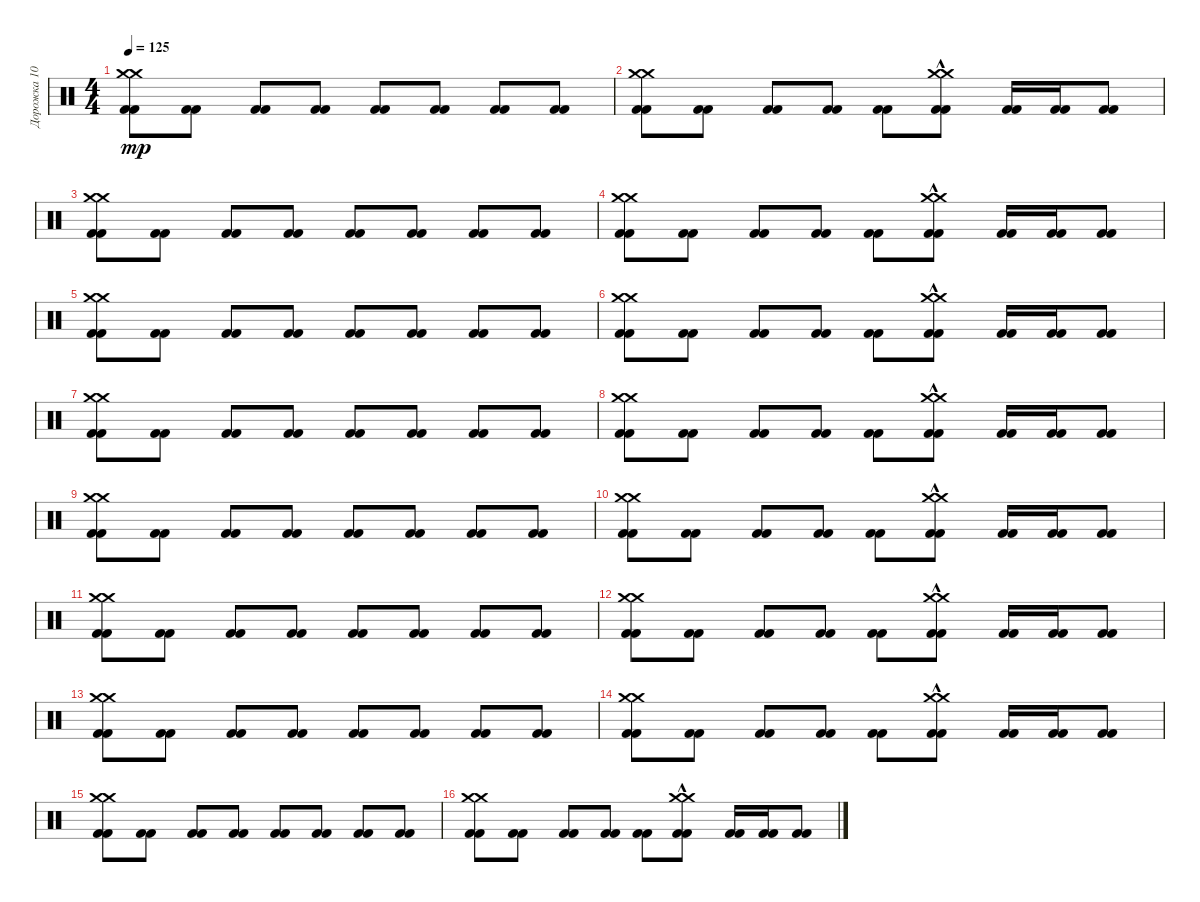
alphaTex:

\track ("Дорожка 10" "Дорожка 10") {instrument percussion}
\staff {score}
\articulation defaults
\ts (4 4)
\tempo 125
\clef neutral
\ks c
("Kick (hit) 2" "Crash medium (hit)" "Kick (hit) 2" "Crash medium (hit)").8{dy mp} ("Kick (hit) 2" "Kick (hit) 2").8 ("Kick (hit) 2" "Kick (hit) 2").8 ("Kick (hit) 2" "Kick (hit) 2").8 ("Kick (hit) 2" "Kick (hit) 2").8 ("Kick (hit) 2" "Kick (hit) 2").8 ("Kick (hit) 2" "Kick (hit) 2").8 ("Kick (hit) 2" "Kick (hit) 2").8 |
("Kick (hit) 2" "Crash medium (hit)" "Kick (hit) 2" "Crash medium (hit)").8 ("Kick (hit) 2" "Kick (hit) 2").8 ("Kick (hit) 2" "Kick (hit) 2").8 ("Kick (hit) 2" "Kick (hit) 2").8 ("Kick (hit) 2" "Kick (hit) 2").8 ("Kick (hit) 2" "Crash medium (hit)"{hac} "Kick (hit) 2" "Crash medium (hit)"{hac}).8 ("Kick (hit) 2" "Kick (hit) 2").16 ("Kick (hit) 2" "Kick (hit) 2").16 ("Kick (hit) 2" "Kick (hit) 2").8 |
("Kick (hit) 2" "Crash medium (hit)" "Kick (hit) 2" "Crash medium (hit)").8 ("Kick (hit) 2" "Kick (hit) 2").8 ("Kick (hit) 2" "Kick (hit) 2").8 ("Kick (hit) 2" "Kick (hit) 2").8 ("Kick (hit) 2" "Kick (hit) 2").8 ("Kick (hit) 2" "Kick (hit) 2").8 ("Kick (hit) 2" "Kick (hit) 2").8 ("Kick (hit) 2" "Kick (hit) 2").8 |
("Kick (hit) 2" "Crash medium (hit)" "Kick (hit) 2" "Crash medium (hit)").8 ("Kick (hit) 2" "Kick (hit) 2").8 ("Kick (hit) 2" "Kick (hit) 2").8 ("Kick (hit) 2" "Kick (hit) 2").8 ("Kick (hit) 2" "Kick (hit) 2").8 ("Kick (hit) 2" "Crash medium (hit)"{hac} "Kick (hit) 2" "Crash medium (hit)"{hac}).8 ("Kick (hit) 2" "Kick (hit) 2").16 ("Kick (hit) 2" "Kick (hit) 2").16 ("Kick (hit) 2" "Kick (hit) 2").8 |
("Kick (hit) 2" "Crash medium (hit)" "Kick (hit) 2" "Crash medium (hit)").8 ("Kick (hit) 2" "Kick (hit) 2").8 ("Kick (hit) 2" "Kick (hit) 2").8 ("Kick (hit) 2" "Kick (hit) 2").8 ("Kick (hit) 2" "Kick (hit) 2").8 ("Kick (hit) 2" "Kick (hit) 2").8 ("Kick (hit) 2" "Kick (hit) 2").8 ("Kick (hit) 2" "Kick (hit) 2").8 |
("Kick (hit) 2" "Crash medium (hit)" "Kick (hit) 2" "Crash medium (hit)").8 ("Kick (hit) 2" "Kick (hit) 2").8 ("Kick (hit) 2" "Kick (hit) 2").8 ("Kick (hit) 2" "Kick (hit) 2").8 ("Kick (hit) 2" "Kick (hit) 2").8 ("Kick (hit) 2" "Crash medium (hit)"{hac} "Kick (hit) 2" "Crash medium (hit)"{hac}).8 ("Kick (hit) 2" "Kick (hit) 2").16 ("Kick (hit) 2" "Kick (hit) 2").16 ("Kick (hit) 2" "Kick (hit) 2").8 |
("Kick (hit) 2" "Crash medium (hit)" "Kick (hit) 2" "Crash medium (hit)").8 ("Kick (hit) 2" "Kick (hit) 2").8 ("Kick (hit) 2" "Kick (hit) 2").8 ("Kick (hit) 2" "Kick (hit) 2").8 ("Kick (hit) 2" "Kick (hit) 2").8 ("Kick (hit) 2" "Kick (hit) 2").8 ("Kick (hit) 2" "Kick (hit) 2").8 ("Kick (hit) 2" "Kick (hit) 2").8 |
("Kick (hit) 2" "Crash medium (hit)" "Kick (hit) 2" "Crash medium (hit)").8 ("Kick (hit) 2" "Kick (hit) 2").8 ("Kick (hit) 2" "Kick (hit) 2").8 ("Kick (hit) 2" "Kick (hit) 2").8 ("Kick (hit) 2" "Kick (hit) 2").8 ("Kick (hit) 2" "Crash medium (hit)"{hac} "Kick (hit) 2" "Crash medium (hit)"{hac}).8 ("Kick (hit) 2" "Kick (hit) 2").16 ("Kick (hit) 2" "Kick (hit) 2").16 ("Kick (hit) 2" "Kick (hit) 2").8 |
("Kick (hit) 2" "Crash medium (hit)" "Kick (hit) 2" "Crash medium (hit)").8 ("Kick (hit) 2" "Kick (hit) 2").8 ("Kick (hit) 2" "Kick (hit) 2").8 ("Kick (hit) 2" "Kick (hit) 2").8 ("Kick (hit) 2" "Kick (hit) 2").8 ("Kick (hit) 2" "Kick (hit) 2").8 ("Kick (hit) 2" "Kick (hit) 2").8 ("Kick (hit) 2" "Kick (hit) 2").8 |
("Kick (hit) 2" "Crash medium (hit)" "Kick (hit) 2" "Crash medium (hit)").8 ("Kick (hit) 2" "Kick (hit) 2").8 ("Kick (hit) 2" "Kick (hit) 2").8 ("Kick (hit) 2" "Kick (hit) 2").8 ("Kick (hit) 2" "Kick (hit) 2").8 ("Kick (hit) 2" "Crash medium (hit)"{hac} "Kick (hit) 2" "Crash medium (hit)"{hac}).8 ("Kick (hit) 2" "Kick (hit) 2").16 ("Kick (hit) 2" "Kick (hit) 2").16 ("Kick (hit) 2" "Kick (hit) 2").8 |
("Kick (hit) 2" "Crash medium (hit)" "Kick (hit) 2" "Crash medium (hit)").8 ("Kick (hit) 2" "Kick (hit) 2").8 ("Kick (hit) 2" "Kick (hit) 2").8 ("Kick (hit) 2" "Kick (hit) 2").8 ("Kick (hit) 2" "Kick (hit) 2").8 ("Kick (hit) 2" "Kick (hit) 2").8 ("Kick (hit) 2" "Kick (hit) 2").8 ("Kick (hit) 2" "Kick (hit) 2").8 |
("Kick (hit) 2" "Crash medium (hit)" "Kick (hit) 2" "Crash medium (hit)").8 ("Kick (hit) 2" "Kick (hit) 2").8 ("Kick (hit) 2" "Kick (hit) 2").8 ("Kick (hit) 2" "Kick (hit) 2").8 ("Kick (hit) 2" "Kick (hit) 2").8 ("Kick (hit) 2" "Crash medium (hit)"{hac} "Kick (hit) 2" "Crash medium (hit)"{hac}).8 ("Kick (hit) 2" "Kick (hit) 2").16 ("Kick (hit) 2" "Kick (hit) 2").16 ("Kick (hit) 2" "Kick (hit) 2").8 |
("Kick (hit) 2" "Crash medium (hit)" "Kick (hit) 2" "Crash medium (hit)").8 ("Kick (hit) 2" "Kick (hit) 2").8 ("Kick (hit) 2" "Kick (hit) 2").8 ("Kick (hit) 2" "Kick (hit) 2").8 ("Kick (hit) 2" "Kick (hit) 2").8 ("Kick (hit) 2" "Kick (hit) 2").8 ("Kick (hit) 2" "Kick (hit) 2").8 ("Kick (hit) 2" "Kick (hit) 2").8 |
("Kick (hit) 2" "Crash medium (hit)" "Kick (hit) 2" "Crash medium (hit)").8 ("Kick (hit) 2" "Kick (hit) 2").8 ("Kick (hit) 2" "Kick (hit) 2").8 ("Kick (hit) 2" "Kick (hit) 2").8 ("Kick (hit) 2" "Kick (hit) 2").8 ("Kick (hit) 2" "Crash medium (hit)"{hac} "Kick (hit) 2" "Crash medium (hit)"{hac}).8 ("Kick (hit) 2" "Kick (hit) 2").16 ("Kick (hit) 2" "Kick (hit) 2").16 ("Kick (hit) 2" "Kick (hit) 2").8 |
("Kick (hit) 2" "Crash medium (hit)" "Kick (hit) 2" "Crash medium (hit)").8 ("Kick (hit) 2" "Kick (hit) 2").8 ("Kick (hit) 2" "Kick (hit) 2").8 ("Kick (hit) 2" "Kick (hit) 2").8 ("Kick (hit) 2" "Kick (hit) 2").8 ("Kick (hit) 2" "Kick (hit) 2").8 ("Kick (hit) 2" "Kick (hit) 2").8 ("Kick (hit) 2" "Kick (hit) 2").8 |
("Kick (hit) 2" "Crash medium (hit)" "Kick (hit) 2" "Crash medium (hit)").8 ("Kick (hit) 2" "Kick (hit) 2").8 ("Kick (hit) 2" "Kick (hit) 2").8 ("Kick (hit) 2" "Kick (hit) 2").8 ("Kick (hit) 2" "Kick (hit) 2").8 ("Kick (hit) 2" "Crash medium (hit)"{hac} "Kick (hit) 2" "Crash medium (hit)"{hac}).8 ("Kick (hit) 2" "Kick (hit) 2").16 ("Kick (hit) 2" "Kick (hit) 2").16 ("Kick (hit) 2" "Kick (hit) 2").8
